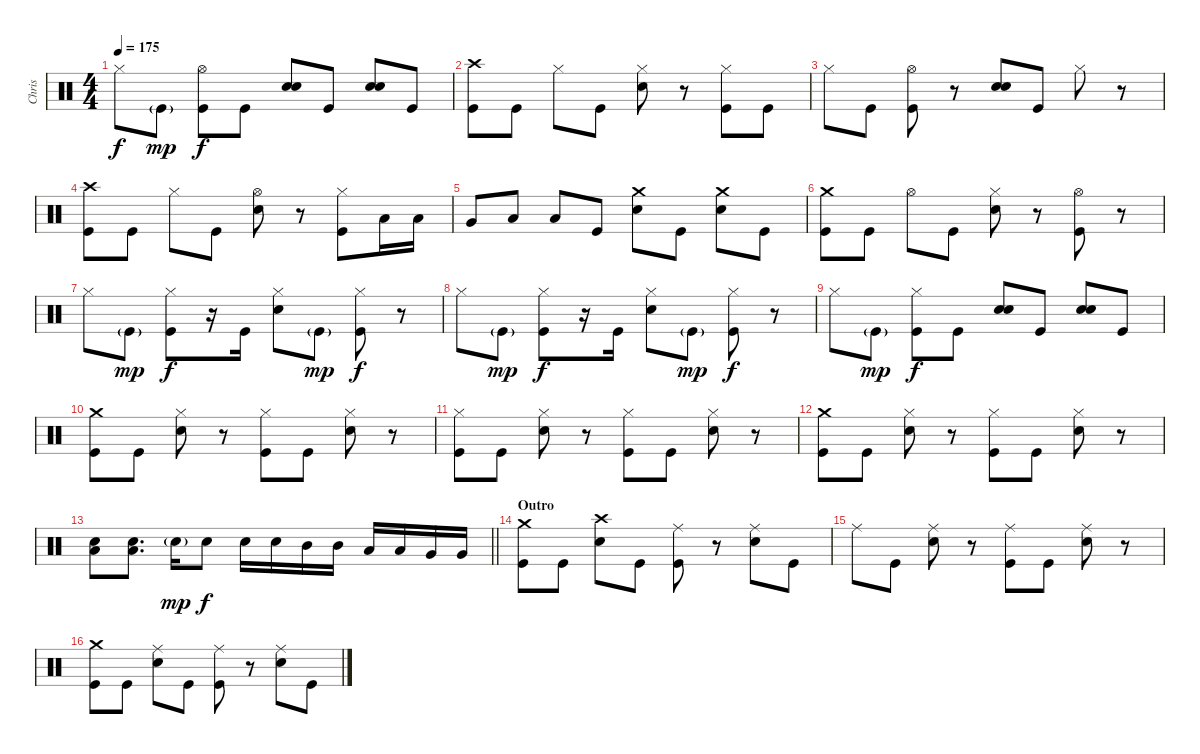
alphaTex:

\track ("Chris" "Chris") {instrument percussion}
\staff {score}
\articulation defaults
\ts (4 4)
\tempo 175
\clef neutral
\ks c "Hi-Hat (closed)".8{dy f} "Kick (hit)"{g}.8{dy mp}
("Hi-Hat (open)" "Kick (hit)").8{dy f} "Kick (hit)".8 ("Snare (hit) 2" "Snare (hit) 2").8{bd 60} "Kick (hit)".8 ("Snare (hit) 2" "Snare (hit) 2").8{bd 60} "Kick (hit)".8 |
("Crash high (hit)" "Kick (hit)").8 "Kick (hit)".8 "Hi-Hat (closed)".8 "Kick (hit)".8 ("Hi-Hat (closed)" "Snare (hit) 2").8 r.8 ("Hi-Hat (closed)" "Kick (hit)").8 "Kick (hit)".8 |
"Hi-Hat (closed)".8 "Kick (hit)".8 ("Hi-Hat (open)" "Kick (hit)").8 r.8 ("Snare (hit) 2" "Snare (hit) 2").8{bd 120} "Kick (hit)".8 "Hi-Hat (closed)".8 r.8 |
("Crash high (hit)" "Kick (hit)").8 "Kick (hit)".8 "Hi-Hat (closed)".8 "Kick (hit)".8 ("Hi-Hat (open)" "Snare (hit) 2").8 r.8 ("Hi-Hat (closed)" "Kick (hit)").8 "Low Tom (hit)".16 "Low Tom (hit)".16 |
"Very Low Tom (hit)".8 "Low Floor Tom (hit)".8 "Low Floor Tom (hit)".8 "Kick (hit)".8 ("Crash medium (hit)" "Snare (hit) 2").8 "Kick (hit)".8 ("Crash medium (hit)" "Snare (hit) 2").8 "Kick (hit)".8 |
("Crash medium (hit)" "Kick (hit)").8 "Kick (hit)".8 "Hi-Hat (open)".8 "Kick (hit)".8 ("Hi-Hat (closed)" "Snare (hit) 2").8 r.8 ("Hi-Hat (open)" "Kick (hit)").8 r.8 |
"Hi-Hat (closed)".8 "Kick (hit)"{g}.8{dy mp} ("Hi-Hat (closed)" "Kick (hit)").8{dy f} r.16 "Kick (hit)".16 ("Hi-Hat (closed)" "Snare (hit) 2").8 "Kick (hit)"{g}.8{dy mp} ("Hi-Hat (closed)" "Kick (hit)").8{dy f} r.8 |
"Hi-Hat (closed)".8 "Kick (hit)"{g}.8{dy mp} ("Hi-Hat (closed)" "Kick (hit)").8{dy f} r.16 "Kick (hit)".16 ("Hi-Hat (closed)" "Snare (hit) 2").8 "Kick (hit)"{g}.8{dy mp} ("Hi-Hat (closed)" "Kick (hit)").8{dy f} r.8 |
"Hi-Hat (closed)".8 "Kick (hit)"{g}.8{dy mp} ("Hi-Hat (closed)" "Kick (hit)").8{dy f} "Kick (hit)".8 ("Snare (hit) 2" "Snare (hit) 2").8{bd 60} "Kick (hit)".8 ("Snare (hit) 2" "Snare (hit) 2").8{bd 60} "Kick (hit)".8 |
("Crash medium (hit)" "Kick (hit)").8 "Kick (hit)".8 ("Hi-Hat (closed)" "Snare (hit) 2").8 r.8 ("Hi-Hat (closed)" "Kick (hit)").8 "Kick (hit)".8 ("Hi-Hat (closed)" "Snare (hit) 2").8 r.8 |
("Hi-Hat (closed)" "Kick (hit)").8 "Kick (hit)".8 ("Hi-Hat (closed)" "Snare (hit) 2").8 r.8 ("Hi-Hat (closed)" "Kick (hit)").8 "Kick (hit)".8 ("Hi-Hat (closed)" "Snare (hit) 2").8 r.8 |
("Crash medium (hit)" "Kick (hit)").8 "Kick (hit)".8 ("Hi-Hat (closed)" "Snare (hit) 2").8 r.8 ("Hi-Hat (closed)" "Kick (hit)").8 "Kick (hit)".8 ("Hi-Hat (closed)" "Snare (hit) 2").8 r.8 |
\barLineRight lightlight
("Low Tom (hit)" "Snare (hit) 2").8 ("Low Tom (hit)" "Snare (hit) 2").8{d} "Snare (hit) 2"{g}.16{dy mp} "Snare (hit) 2".8{dy f} "Snare (hit) 2".16 "Snare (hit) 2".16 "Mid Tom (hit)".16 "Mid Tom (hit)".16 "Low Tom (hit)".16 "Low Tom (hit)".16 "Very Low Tom (hit)".16 "Very Low Tom (hit)".16 |
\section ("" "Outro")
("Crash medium (hit)" "Kick (hit)").8 "Kick (hit)".8 ("Crash high (hit)" "Snare (hit) 2").8 "Kick (hit)".8 ("Ride (middle)" "Kick (hit)").8 r.8 ("Ride (middle)" "Snare (hit) 2").8 "Kick (hit)".8 |
"Ride (middle)".8 "Kick (hit)".8 ("Ride (middle)" "Snare (hit) 2").8 r.8 ("Ride (middle)" "Kick (hit)").8 "Kick (hit)".8 ("Ride (middle)" "Snare (hit) 2").8 r.8 |
("Crash medium (hit)" "Kick (hit)").8 "Kick (hit)".8 ("Ride (middle)" "Snare (hit) 2").8 "Kick (hit)".8 ("Ride (middle)" "Kick (hit)").8 r.8 ("Ride (middle)" "Snare (hit) 2").8 "Kick (hit)".8
